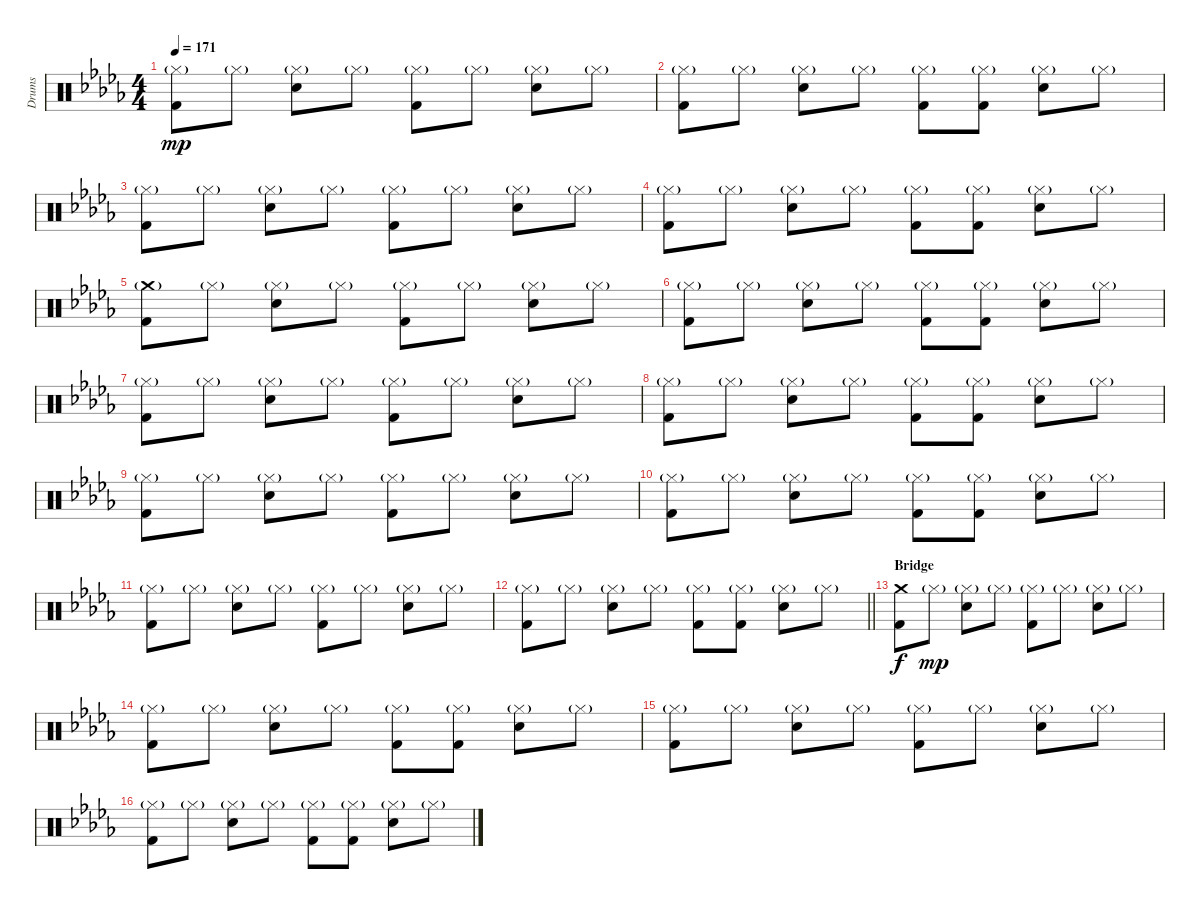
\track ("Drums" "Drums") {instrument percussion}
\staff {score}
\articulation defaults
\ts (4 4)
\tempo 171
\clef neutral
\ks db
("Hi-Hat (closed)"{g} "Kick (hit) 2").8{dy mp} "Hi-Hat (closed)"{g}.8 ("Hi-Hat (closed)"{g} "Snare (hit) 2").8 "Hi-Hat (closed)"{g}.8 ("Hi-Hat (closed)"{g} "Kick (hit) 2").8 "Hi-Hat (closed)"{g}.8 ("Hi-Hat (closed)"{g} "Snare (hit) 2").8 "Hi-Hat (closed)"{g}.8 |
("Hi-Hat (closed)"{g} "Kick (hit) 2").8 "Hi-Hat (closed)"{g}.8 ("Hi-Hat (closed)"{g} "Snare (hit) 2").8 "Hi-Hat (closed)"{g}.8 ("Hi-Hat (closed)"{g} "Kick (hit) 2").8 ("Hi-Hat (closed)"{g} "Kick (hit) 2").8 ("Hi-Hat (closed)"{g} "Snare (hit) 2").8 "Hi-Hat (closed)"{g}.8 |
("Hi-Hat (closed)"{g} "Kick (hit) 2").8 "Hi-Hat (closed)"{g}.8 ("Hi-Hat (closed)"{g} "Snare (hit) 2").8 "Hi-Hat (closed)"{g}.8 ("Hi-Hat (closed)"{g} "Kick (hit) 2").8 "Hi-Hat (closed)"{g}.8 ("Hi-Hat (closed)"{g} "Snare (hit) 2").8 "Hi-Hat (closed)"{g}.8 |
("Hi-Hat (closed)"{g} "Kick (hit) 2").8 "Hi-Hat (closed)"{g}.8 ("Hi-Hat (closed)"{g} "Snare (hit) 2").8 "Hi-Hat (closed)"{g}.8 ("Hi-Hat (closed)"{g} "Kick (hit) 2").8 ("Hi-Hat (closed)"{g} "Kick (hit) 2").8 ("Hi-Hat (closed)"{g} "Snare (hit) 2").8 "Hi-Hat (closed)"{g}.8 |
("Crash medium (hit)"{g} "Kick (hit) 2").8 "Hi-Hat (closed)"{g}.8 ("Hi-Hat (closed)"{g} "Snare (hit) 2").8 "Hi-Hat (closed)"{g}.8 ("Hi-Hat (closed)"{g} "Kick (hit) 2").8 "Hi-Hat (closed)"{g}.8 ("Hi-Hat (closed)"{g} "Snare (hit) 2").8 "Hi-Hat (closed)"{g}.8 |
("Hi-Hat (closed)"{g} "Kick (hit) 2").8 "Hi-Hat (closed)"{g}.8 ("Hi-Hat (closed)"{g} "Snare (hit) 2").8 "Hi-Hat (closed)"{g}.8 ("Hi-Hat (closed)"{g} "Kick (hit) 2").8 ("Hi-Hat (closed)"{g} "Kick (hit) 2").8 ("Hi-Hat (closed)"{g} "Snare (hit) 2").8 "Hi-Hat (closed)"{g}.8 |
("Hi-Hat (closed)"{g} "Kick (hit) 2").8 "Hi-Hat (closed)"{g}.8 ("Hi-Hat (closed)"{g} "Snare (hit) 2").8 "Hi-Hat (closed)"{g}.8 ("Hi-Hat (closed)"{g} "Kick (hit) 2").8 "Hi-Hat (closed)"{g}.8 ("Hi-Hat (closed)"{g} "Snare (hit) 2").8 "Hi-Hat (closed)"{g}.8 |
("Hi-Hat (closed)"{g} "Kick (hit) 2").8 "Hi-Hat (closed)"{g}.8 ("Hi-Hat (closed)"{g} "Snare (hit) 2").8 "Hi-Hat (closed)"{g}.8 ("Hi-Hat (closed)"{g} "Kick (hit) 2").8 ("Hi-Hat (closed)"{g} "Kick (hit) 2").8 ("Hi-Hat (closed)"{g} "Snare (hit) 2").8 "Hi-Hat (closed)"{g}.8 |
("Hi-Hat (closed)"{g} "Kick (hit) 2").8 "Hi-Hat (closed)"{g}.8 ("Hi-Hat (closed)"{g} "Snare (hit) 2").8 "Hi-Hat (closed)"{g}.8 ("Hi-Hat (closed)"{g} "Kick (hit) 2").8 "Hi-Hat (closed)"{g}.8 ("Hi-Hat (closed)"{g} "Snare (hit) 2").8 "Hi-Hat (closed)"{g}.8 |
("Hi-Hat (closed)"{g} "Kick (hit) 2").8 "Hi-Hat (closed)"{g}.8 ("Hi-Hat (closed)"{g} "Snare (hit) 2").8 "Hi-Hat (closed)"{g}.8 ("Hi-Hat (closed)"{g} "Kick (hit) 2").8 ("Hi-Hat (closed)"{g} "Kick (hit) 2").8 ("Hi-Hat (closed)"{g} "Snare (hit) 2").8 "Hi-Hat (closed)"{g}.8 |
("Hi-Hat (closed)"{g} "Kick (hit) 2").8 "Hi-Hat (closed)"{g}.8 ("Hi-Hat (closed)"{g} "Snare (hit) 2").8 "Hi-Hat (closed)"{g}.8 ("Hi-Hat (closed)"{g} "Kick (hit) 2").8 "Hi-Hat (closed)"{g}.8 ("Hi-Hat (closed)"{g} "Snare (hit) 2").8 "Hi-Hat (closed)"{g}.8 |
\barLineRight lightlight
("Hi-Hat (closed)"{g} "Kick (hit) 2").8 "Hi-Hat (closed)"{g}.8 ("Hi-Hat (closed)"{g} "Snare (hit) 2").8 "Hi-Hat (closed)"{g}.8 ("Hi-Hat (closed)"{g} "Kick (hit) 2").8 ("Hi-Hat (closed)"{g} "Kick (hit) 2").8 ("Hi-Hat (closed)"{g} "Snare (hit) 2").8 "Hi-Hat (closed)"{g}.8 |
\section ("" "Bridge")
("Crash medium (hit)" "Kick (hit) 2").8{dy f} "Hi-Hat (closed)"{g}.8{dy mp} ("Hi-Hat (closed)"{g} "Snare (hit) 2").8 "Hi-Hat (closed)"{g}.8 ("Hi-Hat (closed)"{g} "Kick (hit) 2").8 "Hi-Hat (closed)"{g}.8 ("Hi-Hat (closed)"{g} "Snare (hit) 2").8 "Hi-Hat (closed)"{g}.8 |
("Hi-Hat (closed)"{g} "Kick (hit) 2").8 "Hi-Hat (closed)"{g}.8 ("Hi-Hat (closed)"{g} "Snare (hit) 2").8 "Hi-Hat (closed)"{g}.8 ("Hi-Hat (closed)"{g} "Kick (hit) 2").8 ("Hi-Hat (closed)"{g} "Kick (hit) 2").8 ("Hi-Hat (closed)"{g} "Snare (hit) 2").8 "Hi-Hat (closed)"{g}.8 |
("Hi-Hat (closed)"{g} "Kick (hit) 2").8 "Hi-Hat (closed)"{g}.8 ("Hi-Hat (closed)"{g} "Snare (hit) 2").8 "Hi-Hat (closed)"{g}.8 ("Hi-Hat (closed)"{g} "Kick (hit) 2").8 "Hi-Hat (closed)"{g}.8 ("Hi-Hat (closed)"{g} "Snare (hit) 2").8 "Hi-Hat (closed)"{g}.8 |
("Hi-Hat (closed)"{g} "Kick (hit) 2").8 "Hi-Hat (closed)"{g}.8 ("Hi-Hat (closed)"{g} "Snare (hit) 2").8 "Hi-Hat (closed)"{g}.8 ("Hi-Hat (closed)"{g} "Kick (hit) 2").8 ("Hi-Hat (closed)"{g} "Kick (hit) 2").8 ("Hi-Hat (closed)"{g} "Snare (hit) 2").8 "Hi-Hat (closed)"{g}.8
